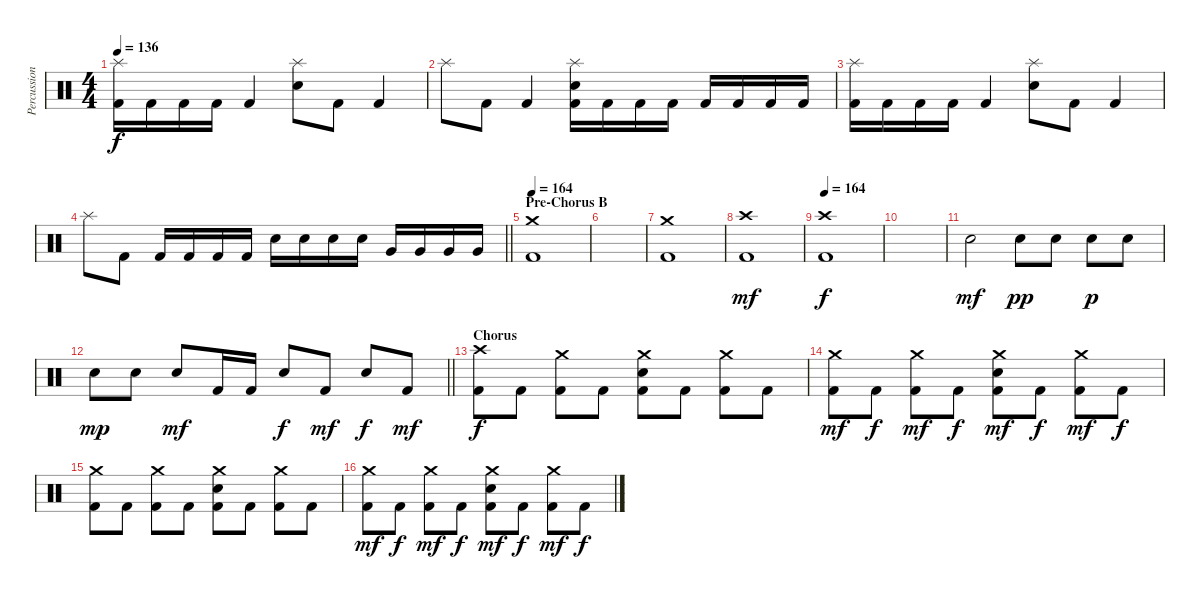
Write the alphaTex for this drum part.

\track ("Percussion" "Percussion") {instrument percussion}
\staff {score}
\articulation defaults
\ts (4 4)
\tempo 136
\clef neutral
\ks c
("Splash (hit)" "Kick (hit) 2").16{dy f} "Kick (hit) 2".16 "Kick (hit) 2".16 "Kick (hit) 2".16 "Kick (hit) 2".4 ("Splash (hit)" "Snare (hit) 2").8 "Kick (hit) 2".8 "Kick (hit) 2".4 |
"Splash (hit)".8 "Kick (hit) 2".8 "Kick (hit) 2".4 ("Splash (hit)" "Snare (hit) 2" "Kick (hit) 2").16 "Kick (hit) 2".16 "Kick (hit) 2".16 "Kick (hit) 2".16 "Kick (hit) 2".16 "Kick (hit) 2".16 "Kick (hit) 2".16 "Kick (hit) 2".16 |
("Splash (hit)" "Kick (hit) 2").16 "Kick (hit) 2".16 "Kick (hit) 2".16 "Kick (hit) 2".16 "Kick (hit) 2".4 ("Splash (hit)" "Snare (hit) 2").8 "Kick (hit) 2".8 "Kick (hit) 2".4 |
\barLineRight lightlight "Splash (hit)".8 "Kick (hit) 2".8 "Kick (hit) 2".16 "Kick (hit) 2".16 "Kick (hit) 2".16 "Kick (hit) 2".16 "Snare (hit) 2".16 "Snare (hit) 2".16 "Snare (hit) 2".16 "Snare (hit) 2".16 "Very Low Tom (hit)".16 "Very Low Tom (hit)".16 "Very Low Tom (hit)".16 "Very Low Tom (hit)".16
|
\section ("" "Pre-Chorus B")
\tempo 164
("Crash medium (hit)" "Kick (hit) 2").1 |
|
("Crash medium (hit)" "Kick (hit) 2").1 |
("Crash high (hit)" "Kick (hit) 2").1{dy mf} |
\tempo 164
("Crash high (hit)" "Kick (hit) 2").1{dy f} |
|
"Snare (hit) 2".2{dy mf} "Snare (hit) 2".8{dy pp} "Snare (hit) 2".8 "Snare (hit) 2".8{dy p} "Snare (hit) 2".8 |
\barLineRight lightlight "Snare (hit) 2".8{dy mp} "Snare (hit) 2".8 "Snare (hit) 2".8{dy mf} "Kick (hit) 2".16 "Kick (hit) 2".16 "Snare (hit) 2".8{dy f} "Kick (hit) 2".8{dy mf} "Snare (hit) 2".8{dy f} "Kick (hit) 2".8{dy mf}
|
\section ("" "Chorus")
("Crash high (hit)" "Kick (hit) 2").8{dy f} "Kick (hit) 2".8 ("Crash medium (hit)" "Kick (hit) 2").8 "Kick (hit) 2".8 ("Crash medium (hit)" "Snare (hit) 2" "Kick (hit) 2").8 "Kick (hit) 2".8 ("Crash medium (hit)" "Kick (hit) 2").8 "Kick (hit) 2".8 |
("Crash medium (hit)" "Kick (hit) 2").8{dy mf} "Kick (hit) 2".8{dy f} ("Crash medium (hit)" "Kick (hit) 2").8{dy mf} "Kick (hit) 2".8{dy f} ("Crash medium (hit)" "Snare (hit) 2" "Kick (hit) 2").8{dy mf} "Kick (hit) 2".8{dy f} ("Crash medium (hit)" "Kick (hit) 2").8{dy mf} "Kick (hit) 2".8{dy f} |
("Crash medium (hit)" "Kick (hit) 2").8 "Kick (hit) 2".8 ("Crash medium (hit)" "Kick (hit) 2").8 "Kick (hit) 2".8 ("Crash medium (hit)" "Snare (hit) 2" "Kick (hit) 2").8 "Kick (hit) 2".8 ("Crash medium (hit)" "Kick (hit) 2").8 "Kick (hit) 2".8 |
("Crash medium (hit)" "Kick (hit) 2").8{dy mf} "Kick (hit) 2".8{dy f} ("Crash medium (hit)" "Kick (hit) 2").8{dy mf} "Kick (hit) 2".8{dy f} ("Crash medium (hit)" "Snare (hit) 2" "Kick (hit) 2").8{dy mf} "Kick (hit) 2".8{dy f} ("Crash medium (hit)" "Kick (hit) 2").8{dy mf} "Kick (hit) 2".8{dy f}
